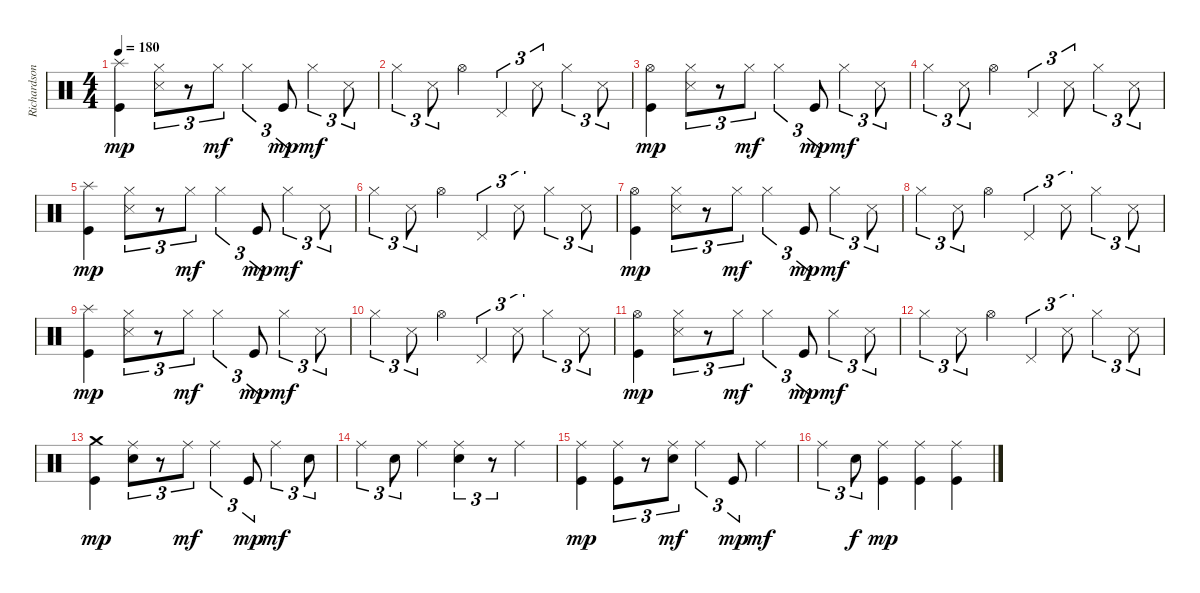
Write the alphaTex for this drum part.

\track ("Richardson" "Richardson") {instrument percussion}
\staff {score}
\articulation defaults
\ts (4 4)
\tempo 180
\clef neutral
\ks c
("Splash (hit)" "Kick (hit)").4{dy mp} ("Hi-Hat (closed)" "Snare (side stick) 3").8{tu (3 2)} r.8{tu (3 2)} "Hi-Hat (closed)".8{tu (3 2) dy mf} "Hi-Hat (closed)".4{tu (3 2)} "Kick (hit)".8{tu (3 2) dy mp} "Hi-Hat (closed)".4{tu (3 2) dy mf} "Snare (side stick) 3".8{tu (3 2)} |
"Hi-Hat (closed)".4{tu (3 2)} "Snare (side stick) 3".8{tu (3 2)} "Hi-Hat (open)".4 "Pedal Hi-Hat (hit)".4{tu (3 2)} "Snare (side stick) 3".8{tu (3 2)} "Hi-Hat (closed)".4{tu (3 2)} "Snare (side stick) 3".8{tu (3 2)} |
("Hi-Hat (open)" "Kick (hit)").4{dy mp} ("Hi-Hat (closed)" "Snare (side stick) 3").8{tu (3 2)} r.8{tu (3 2)} "Hi-Hat (closed)".8{tu (3 2) dy mf} "Hi-Hat (closed)".4{tu (3 2)} "Kick (hit)".8{tu (3 2) dy mp} "Hi-Hat (closed)".4{tu (3 2) dy mf} "Snare (side stick) 3".8{tu (3 2)} |
"Hi-Hat (closed)".4{tu (3 2)} "Snare (side stick) 3".8{tu (3 2)} "Hi-Hat (open)".4 "Pedal Hi-Hat (hit)".4{tu (3 2)} "Snare (side stick) 3".8{tu (3 2)} "Hi-Hat (closed)".4{tu (3 2)} "Snare (side stick) 3".8{tu (3 2)} |
("Splash (hit)" "Kick (hit)").4{dy mp} ("Hi-Hat (closed)" "Snare (side stick) 3").8{tu (3 2)} r.8{tu (3 2)} "Hi-Hat (closed)".8{tu (3 2) dy mf} "Hi-Hat (closed)".4{tu (3 2)} "Kick (hit)".8{tu (3 2) dy mp} "Hi-Hat (closed)".4{tu (3 2) dy mf} "Snare (side stick) 3".8{tu (3 2)} |
"Hi-Hat (closed)".4{tu (3 2)} "Snare (side stick) 3".8{tu (3 2)} "Hi-Hat (open)".4 "Pedal Hi-Hat (hit)".4{tu (3 2)} "Snare (side stick) 3".8{tu (3 2)} "Hi-Hat (closed)".4{tu (3 2)} "Snare (side stick) 3".8{tu (3 2)} |
("Hi-Hat (open)" "Kick (hit)").4{dy mp} ("Hi-Hat (closed)" "Snare (side stick) 3").8{tu (3 2)} r.8{tu (3 2)} "Hi-Hat (closed)".8{tu (3 2) dy mf} "Hi-Hat (closed)".4{tu (3 2)} "Kick (hit)".8{tu (3 2) dy mp} "Hi-Hat (closed)".4{tu (3 2) dy mf} "Snare (side stick) 3".8{tu (3 2)} |
"Hi-Hat (closed)".4{tu (3 2)} "Snare (side stick) 3".8{tu (3 2)} "Hi-Hat (open)".4 "Pedal Hi-Hat (hit)".4{tu (3 2)} "Snare (side stick) 3".8{tu (3 2)} "Hi-Hat (closed)".4{tu (3 2)} "Snare (side stick) 3".8{tu (3 2)} |
("Splash (hit)" "Kick (hit)").4{dy mp} ("Hi-Hat (closed)" "Snare (side stick) 3").8{tu (3 2)} r.8{tu (3 2)} "Hi-Hat (closed)".8{tu (3 2) dy mf} "Hi-Hat (closed)".4{tu (3 2)} "Kick (hit)".8{tu (3 2) dy mp} "Hi-Hat (closed)".4{tu (3 2) dy mf} "Snare (side stick) 3".8{tu (3 2)} |
"Hi-Hat (closed)".4{tu (3 2)} "Snare (side stick) 3".8{tu (3 2)} "Hi-Hat (open)".4 "Pedal Hi-Hat (hit)".4{tu (3 2)} "Snare (side stick) 3".8{tu (3 2)} "Hi-Hat (closed)".4{tu (3 2)} "Snare (side stick) 3".8{tu (3 2)} |
("Hi-Hat (open)" "Kick (hit)").4{dy mp} ("Hi-Hat (closed)" "Snare (side stick) 3").8{tu (3 2)} r.8{tu (3 2)} "Hi-Hat (closed)".8{tu (3 2) dy mf} "Hi-Hat (closed)".4{tu (3 2)} "Kick (hit)".8{tu (3 2) dy mp} "Hi-Hat (closed)".4{tu (3 2) dy mf} "Snare (side stick) 3".8{tu (3 2)} |
"Hi-Hat (closed)".4{tu (3 2)} "Snare (side stick) 3".8{tu (3 2)} "Hi-Hat (open)".4 "Pedal Hi-Hat (hit)".4{tu (3 2)} "Snare (side stick) 3".8{tu (3 2)} "Hi-Hat (closed)".4{tu (3 2)} "Snare (side stick) 3".8{tu (3 2)} |
("Crash medium (hit)" "Kick (hit)").4{dy mp} ("Ride (middle)" "Electric Snare (hit)").8{tu (3 2)} r.8{tu (3 2)} "Ride (middle)".8{tu (3 2) dy mf} "Ride (middle)".4{tu (3 2)} "Kick (hit)".8{tu (3 2) dy mp} "Ride (middle)".4{tu (3 2) dy mf} "Electric Snare (hit)".8{tu (3 2)} |
"Ride (middle)".4{tu (3 2)} "Electric Snare (hit)".8{tu (3 2)} "Ride (middle)".4 ("Ride (middle)" "Electric Snare (hit)").4{tu (3 2)} r.8{tu (3 2)} "Ride (middle)".4 |
("Ride (middle)" "Kick (hit)").4{dy mp} ("Ride (middle)" "Kick (hit)").8{tu (3 2)} r.8{tu (3 2)} ("Ride (middle)" "Electric Snare (hit)").8{tu (3 2) dy mf} "Ride (middle)".4{tu (3 2)} "Kick (hit)".8{tu (3 2) dy mp} "Ride (middle)".4{dy mf} |
"Ride (middle)".4{tu (3 2)} "Electric Snare (hit)".8{tu (3 2) dy f} ("Ride (middle)" "Kick (hit)").4{dy mp} ("Ride (middle)" "Kick (hit)").4 ("Ride (middle)" "Kick (hit)").4
